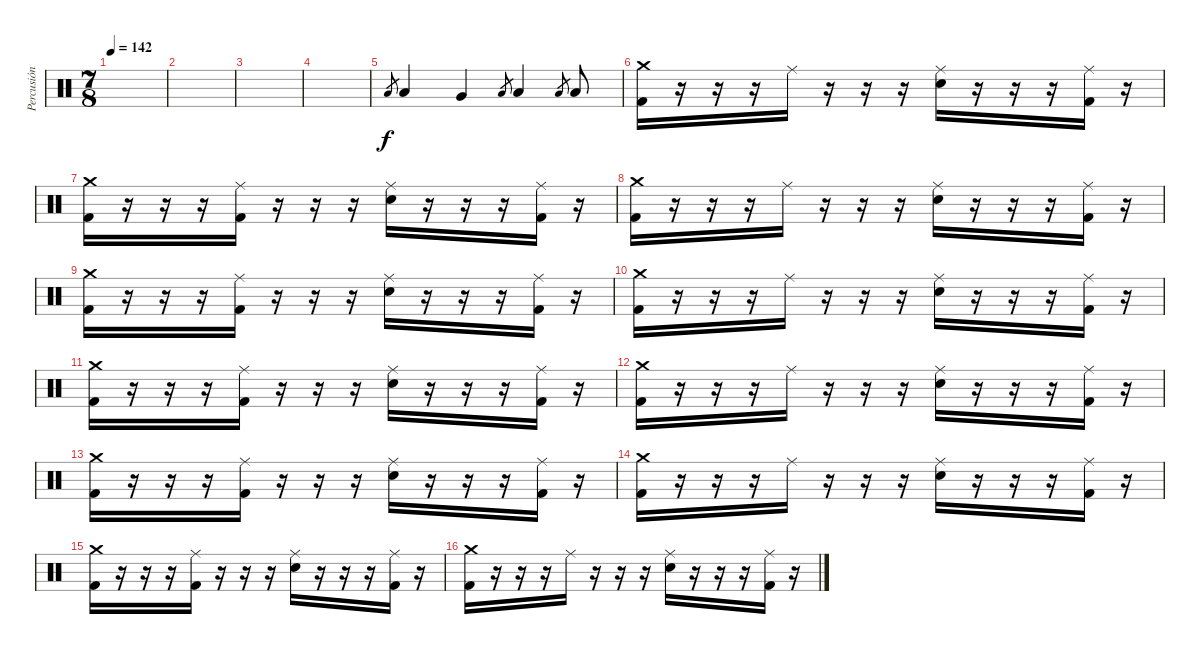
\track ("Percusión" "Percusión") {instrument percussion}
\staff {score}
\articulation defaults
\ts (7 8)
\tempo 142
\clef neutral
\ks c
|
|
|
|
"Low Tom (hit)".8{gr} "Low Tom (hit)".4 "Very Low Tom (hit)".4 "Low Tom (hit)".8{gr} "Low Tom (hit)".4 "Low Tom (hit)".8{gr} "Low Tom (hit)".8 |
("Crash medium (hit)" "Kick (hit) 2").16 r.16 r.16 r.16 "Ride (middle)".16 r.16 r.16 r.16 ("Ride (middle)" "Electric Snare (hit)").16 r.16 r.16 r.16 ("Ride (middle)" "Kick (hit) 2").16 r.16 |
("Crash medium (hit)" "Kick (hit) 2").16 r.16 r.16 r.16 ("Ride (middle)" "Kick (hit) 2").16 r.16 r.16 r.16 ("Ride (middle)" "Electric Snare (hit)").16 r.16 r.16 r.16 ("Ride (middle)" "Kick (hit) 2").16 r.16 |
("Crash medium (hit)" "Kick (hit) 2").16 r.16 r.16 r.16 "Ride (middle)".16 r.16 r.16 r.16 ("Ride (middle)" "Electric Snare (hit)").16 r.16 r.16 r.16 ("Ride (middle)" "Kick (hit) 2").16 r.16 |
("Crash medium (hit)" "Kick (hit) 2").16 r.16 r.16 r.16 ("Ride (middle)" "Kick (hit) 2").16 r.16 r.16 r.16 ("Ride (middle)" "Electric Snare (hit)").16 r.16 r.16 r.16 ("Ride (middle)" "Kick (hit) 2").16 r.16 |
("Crash medium (hit)" "Kick (hit) 2").16 r.16 r.16 r.16 "Ride (middle)".16 r.16 r.16 r.16 ("Ride (middle)" "Electric Snare (hit)").16 r.16 r.16 r.16 ("Ride (middle)" "Kick (hit) 2").16 r.16 |
("Crash medium (hit)" "Kick (hit) 2").16 r.16 r.16 r.16 ("Ride (middle)" "Kick (hit) 2").16 r.16 r.16 r.16 ("Ride (middle)" "Electric Snare (hit)").16 r.16 r.16 r.16 ("Ride (middle)" "Kick (hit) 2").16 r.16 |
("Crash medium (hit)" "Kick (hit) 2").16 r.16 r.16 r.16 "Ride (middle)".16 r.16 r.16 r.16 ("Ride (middle)" "Electric Snare (hit)").16 r.16 r.16 r.16 ("Ride (middle)" "Kick (hit) 2").16 r.16 |
("Crash medium (hit)" "Kick (hit) 2").16 r.16 r.16 r.16 ("Ride (middle)" "Kick (hit) 2").16 r.16 r.16 r.16 ("Ride (middle)" "Electric Snare (hit)").16 r.16 r.16 r.16 ("Ride (middle)" "Kick (hit) 2").16 r.16 |
("Crash medium (hit)" "Kick (hit) 2").16 r.16 r.16 r.16 "Ride (middle)".16 r.16 r.16 r.16 ("Ride (middle)" "Electric Snare (hit)").16 r.16 r.16 r.16 ("Ride (middle)" "Kick (hit) 2").16 r.16 |
("Crash medium (hit)" "Kick (hit) 2").16 r.16 r.16 r.16 ("Ride (middle)" "Kick (hit) 2").16 r.16 r.16 r.16 ("Ride (middle)" "Electric Snare (hit)").16 r.16 r.16 r.16 ("Ride (middle)" "Kick (hit) 2").16 r.16 |
("Crash medium (hit)" "Kick (hit) 2").16 r.16 r.16 r.16 "Ride (middle)".16 r.16 r.16 r.16 ("Ride (middle)" "Electric Snare (hit)").16 r.16 r.16 r.16 ("Ride (middle)" "Kick (hit) 2").16 r.16
